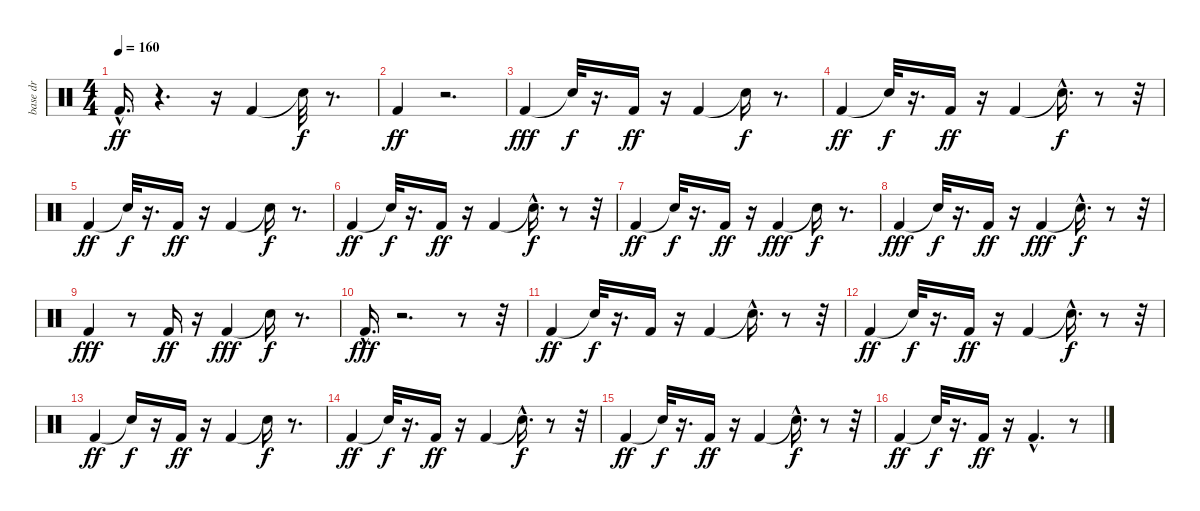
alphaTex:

\track ("base dr" "base dr") {instrument percussion}
\staff {score}
\articulation defaults
\ts (4 4)
\tempo 160
\clef neutral
\ks c "Kick (hit) 2"{hac}.16{d dy ff}
r.4{d} r.16 "Kick (hit) 2".4 "Snare (hit)"{t}.32{dy f} r.8{d} |
"Kick (hit) 2".4{dy ff} r.2{d} |
"Kick (hit) 2".4{dy fff} "Snare (hit)"{t}.32{dy f} r.16{d} "Kick (hit) 2".16{dy ff} r.16 "Kick (hit) 2".4 "Snare (hit)"{t}.16{dy f} r.8{d} |
"Kick (hit) 2".4{dy ff} "Snare (hit)"{t}.32{dy f} r.16{d} "Kick (hit) 2".16{dy ff} r.16 "Kick (hit) 2".4 "Snare (hit)"{hac t}.16{d dy f} r.8 r.32 |
"Kick (hit) 2".4{dy ff} "Snare (hit)"{t}.32{dy f} r.16{d} "Kick (hit) 2".16{dy ff} r.16 "Kick (hit) 2".4 "Snare (hit)"{t}.16{dy f} r.8{d} |
"Kick (hit) 2".4{dy ff} "Snare (hit)"{t}.32{dy f} r.16{d} "Kick (hit) 2".16{dy ff} r.16 "Kick (hit) 2".4 "Snare (hit)"{hac t}.16{d dy f} r.8 r.32 |
"Kick (hit) 2".4{dy ff} "Snare (hit)"{t}.32{dy f} r.16{d} "Kick (hit) 2".16{dy ff} r.16 "Kick (hit) 2".4{dy fff} "Snare (hit)"{t}.16{dy f} r.8{d} |
"Kick (hit) 2".4{dy fff} "Snare (hit)"{t}.32{dy f} r.16{d} "Kick (hit) 2".16{dy ff} r.16 "Kick (hit) 2".4{dy fff} "Snare (hit)"{hac t}.16{d dy f} r.8 r.32 |
"Kick (hit) 2".4{dy fff} r.8 "Kick (hit) 2".16{dy ff} r.16 "Kick (hit) 2".4{dy fff} "Snare (hit)"{t}.16{dy f} r.8{d} |
"Kick (hit) 2"{hac}.16{d dy fff} r.2{d} r.8 r.32 |
"Kick (hit) 2".4{dy ff} "Snare (hit)"{t}.32{dy f} r.16{d} "Kick (hit) 2".16 r.16 "Kick (hit) 2".4 "Snare (hit)"{hac t}.16{d} r.8 r.32 |
"Kick (hit) 2".4{dy ff} "Snare (hit)"{t}.32{dy f} r.16{d} "Kick (hit) 2".16{dy ff} r.16 "Kick (hit) 2".4 "Snare (hit)"{hac t}.16{d dy f} r.8 r.32 |
"Kick (hit) 2".4{dy ff} "Snare (hit)"{t}.16{dy f} r.16 "Kick (hit) 2".16{dy ff} r.16 "Kick (hit) 2".4 "Snare (hit)"{t}.16{dy f} r.8{d} |
"Kick (hit) 2".4{dy ff} "Snare (hit)"{t}.32{dy f} r.16{d} "Kick (hit) 2".16{dy ff} r.16 "Kick (hit) 2".4 "Snare (hit)"{hac t}.16{d dy f} r.8 r.32 |
"Kick (hit) 2".4{dy ff} "Snare (hit)"{t}.32{dy f} r.16{d} "Kick (hit) 2".16{dy ff} r.16 "Kick (hit) 2".4 "Snare (hit)"{hac t}.16{d dy f} r.8 r.32 |
"Kick (hit) 2".4{dy ff} "Snare (hit)"{t}.32{dy f} r.16{d} "Kick (hit) 2".16{dy ff} r.16 "Kick (hit) 2"{hac}.4{d} r.8
